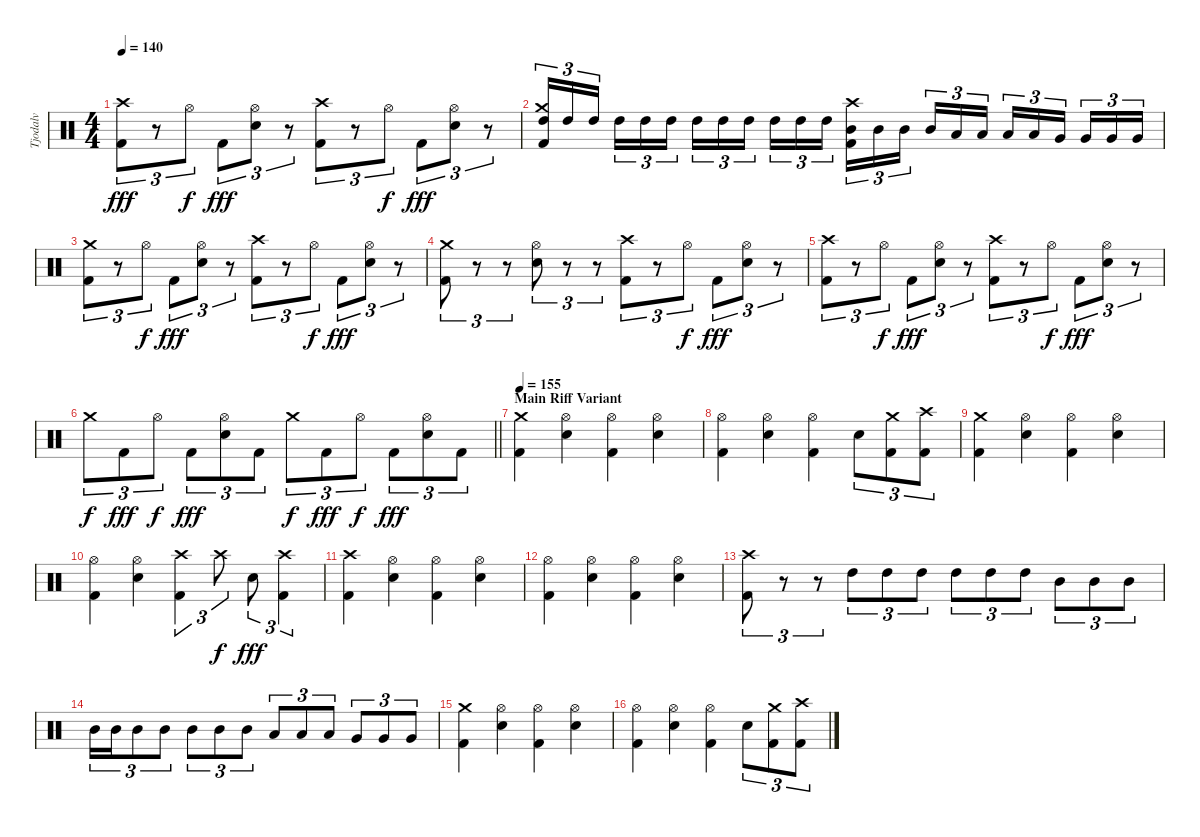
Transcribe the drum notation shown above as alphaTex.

\track ("Tjodalv" "Tjodalv") {instrument percussion}
\staff {score}
\articulation defaults
\ts (4 4)
\tempo 140
\clef neutral
\ks c
("Crash high (hit)" "Kick (hit) 2").8{tu (3 2) dy fff} r.8{tu (3 2)} "Hi-Hat (open)".8{tu (3 2) dy f} "Kick (hit) 2".8{tu (3 2) dy fff} ("Hi-Hat (open)" "Snare (hit) 2").8{tu (3 2)} r.8{tu (3 2)} ("Crash high (hit)" "Kick (hit) 2").8{tu (3 2)} r.8{tu (3 2)} "Hi-Hat (open)".8{tu (3 2) dy f} "Kick (hit) 2".8{tu (3 2) dy fff} ("Hi-Hat (open)" "Snare (hit) 2").8{tu (3 2)} r.8{tu (3 2)} |
("Crash medium (hit)" "High Tom (hit)" "Kick (hit) 2").16{tu (3 2)} "High Tom (hit)".16{tu (3 2)} "High Tom (hit)".16{tu (3 2) beam splitsecondary} "High Tom (hit)".16{tu (3 2)} "High Tom (hit)".16{tu (3 2)} "High Tom (hit)".16{tu (3 2)} "High Tom (hit)".16{tu (3 2)} "High Tom (hit)".16{tu (3 2)} "High Tom (hit)".16{tu (3 2) beam splitsecondary} "High Tom (hit)".16{tu (3 2)} "High Tom (hit)".16{tu (3 2)} "High Tom (hit)".16{tu (3 2)} ("Crash high (hit)" "Mid Tom (hit)" "Kick (hit) 2").16{tu (3 2)} "Mid Tom (hit)".16{tu (3 2)} "Mid Tom (hit)".16{tu (3 2) beam splitsecondary} "Mid Tom (hit)".16{tu (3 2)} "Low Tom (hit)".16{tu (3 2)} "Low Tom (hit)".16{tu (3 2)} "Low Tom (hit)".16{tu (3 2)} "Low Tom (hit)".16{tu (3 2)} "Very Low Tom (hit)".16{tu (3 2) beam splitsecondary} "Very Low Tom (hit)".16{tu (3 2)} "Very Low Tom (hit)".16{tu (3 2)} "Very Low Tom (hit)".16{tu (3 2)} |
("Crash medium (hit)" "Kick (hit) 2").8{tu (3 2)} r.8{tu (3 2)} "Hi-Hat (open)".8{tu (3 2) dy f} "Kick (hit) 2".8{tu (3 2) dy fff} ("Hi-Hat (open)" "Snare (hit) 2").8{tu (3 2)} r.8{tu (3 2)} ("Crash high (hit)" "Kick (hit) 2").8{tu (3 2)} r.8{tu (3 2)} "Hi-Hat (open)".8{tu (3 2) dy f} "Kick (hit) 2".8{tu (3 2) dy fff} ("Hi-Hat (open)" "Snare (hit) 2").8{tu (3 2)} r.8{tu (3 2)} |
("Crash medium (hit)" "Kick (hit) 2").8{tu (3 2)} r.8{tu (3 2)} r.8{tu (3 2)} ("Hi-Hat (open)" "Snare (hit) 2").8{tu (3 2)} r.8{tu (3 2)} r.8{tu (3 2)} ("Crash high (hit)" "Kick (hit) 2").8{tu (3 2)} r.8{tu (3 2)} "Hi-Hat (open)".8{tu (3 2) dy f} "Kick (hit) 2".8{tu (3 2) dy fff} ("Hi-Hat (open)" "Snare (hit) 2").8{tu (3 2)} r.8{tu (3 2)} |
("Crash high (hit)" "Kick (hit) 2").8{tu (3 2)} r.8{tu (3 2)} "Hi-Hat (open)".8{tu (3 2) dy f} "Kick (hit) 2".8{tu (3 2) dy fff} ("Hi-Hat (open)" "Snare (hit) 2").8{tu (3 2)} r.8{tu (3 2)} ("Crash high (hit)" "Kick (hit) 2").8{tu (3 2)} r.8{tu (3 2)} "Hi-Hat (open)".8{tu (3 2) dy f} "Kick (hit) 2".8{tu (3 2) dy fff} ("Hi-Hat (open)" "Snare (hit) 2").8{tu (3 2)} r.8{tu (3 2)} |
\barLineRight lightlight "Crash medium (hit)".8{tu (3 2) dy f} "Kick (hit) 2".8{tu (3 2) dy fff} "Hi-Hat (open)".8{tu (3 2) dy f} "Kick (hit) 2".8{tu (3 2) dy fff}
("Hi-Hat (open)" "Snare (hit) 2").8{tu (3 2)} "Kick (hit) 2".8{tu (3 2)} "Crash medium (hit)".8{tu (3 2) dy f} "Kick (hit) 2".8{tu (3 2) dy fff} "Hi-Hat (open)".8{tu (3 2) dy f} "Kick (hit) 2".8{tu (3 2) dy fff} ("Hi-Hat (open)" "Snare (hit) 2").8{tu (3 2)} "Kick (hit) 2".8{tu (3 2)} |
\section ("" "Main Riff Variant")
\tempo 155
("Crash medium (hit)" "Kick (hit) 2").4 ("Hi-Hat (open)" "Snare (hit) 2").4 ("Hi-Hat (open)" "Kick (hit) 2").4 ("Hi-Hat (open)" "Snare (hit) 2").4 |
("Hi-Hat (open)" "Kick (hit) 2").4 ("Hi-Hat (open)" "Snare (hit) 2").4 ("Hi-Hat (open)" "Kick (hit) 2").4 "Snare (hit) 2".8{tu (3 2)} ("Crash medium (hit)" "Kick (hit) 2").8{tu (3 2)} ("Crash high (hit)" "Kick (hit) 2").8{tu (3 2)} |
("Crash medium (hit)" "Kick (hit) 2").4 ("Hi-Hat (open)" "Snare (hit) 2").4 ("Hi-Hat (open)" "Kick (hit) 2").4 ("Hi-Hat (open)" "Snare (hit) 2").4 |
("Hi-Hat (open)" "Kick (hit) 2").4 ("Hi-Hat (open)" "Snare (hit) 2").4 ("Crash high (hit)" "Kick (hit) 2").4{tu (3 2)} "Crash high (hit)".8{tu (3 2) dy f} "Snare (hit) 2".8{tu (3 2) dy fff} ("Crash high (hit)" "Kick (hit) 2").4{tu (3 2)} |
("Crash high (hit)" "Kick (hit) 2").4 ("Hi-Hat (open)" "Snare (hit) 2").4 ("Hi-Hat (open)" "Kick (hit) 2").4 ("Hi-Hat (open)" "Snare (hit) 2").4 |
("Hi-Hat (open)" "Kick (hit) 2").4 ("Hi-Hat (open)" "Snare (hit) 2").4 ("Hi-Hat (open)" "Kick (hit) 2").4 ("Hi-Hat (open)" "Snare (hit) 2").4 |
("Crash high (hit)" "Kick (hit) 2").8{tu (3 2)} r.8{tu (3 2)} r.8{tu (3 2)} "High Tom (hit)".8{tu (3 2)} "High Tom (hit)".8{tu (3 2)} "High Tom (hit)".8{tu (3 2)} "High Tom (hit)".8{tu (3 2)} "High Tom (hit)".8{tu (3 2)} "High Tom (hit)".8{tu (3 2)} "Mid Tom (hit)".8{tu (3 2)} "Mid Tom (hit)".8{tu (3 2)} "Mid Tom (hit)".8{tu (3 2)} |
"Mid Tom (hit)".16{tu (3 2)} "Mid Tom (hit)".16{tu (3 2)} "Mid Tom (hit)".8{tu (3 2)} "Mid Tom (hit)".8{tu (3 2)} "Mid Tom (hit)".8{tu (3 2)} "Mid Tom (hit)".8{tu (3 2)} "Mid Tom (hit)".8{tu (3 2)} "Low Tom (hit)".8{tu (3 2)} "Low Tom (hit)".8{tu (3 2)} "Low Tom (hit)".8{tu (3 2)} "Very Low Tom (hit)".8{tu (3 2)} "Very Low Tom (hit)".8{tu (3 2)} "Very Low Tom (hit)".8{tu (3 2)} |
("Crash medium (hit)" "Kick (hit) 2").4 ("Hi-Hat (open)" "Snare (hit) 2").4 ("Hi-Hat (open)" "Kick (hit) 2").4 ("Hi-Hat (open)" "Snare (hit) 2").4 |
("Hi-Hat (open)" "Kick (hit) 2").4 ("Hi-Hat (open)" "Snare (hit) 2").4 ("Hi-Hat (open)" "Kick (hit) 2").4 "Snare (hit) 2".8{tu (3 2)} ("Crash medium (hit)" "Kick (hit) 2").8{tu (3 2)} ("Crash high (hit)" "Kick (hit) 2").8{tu (3 2)}
